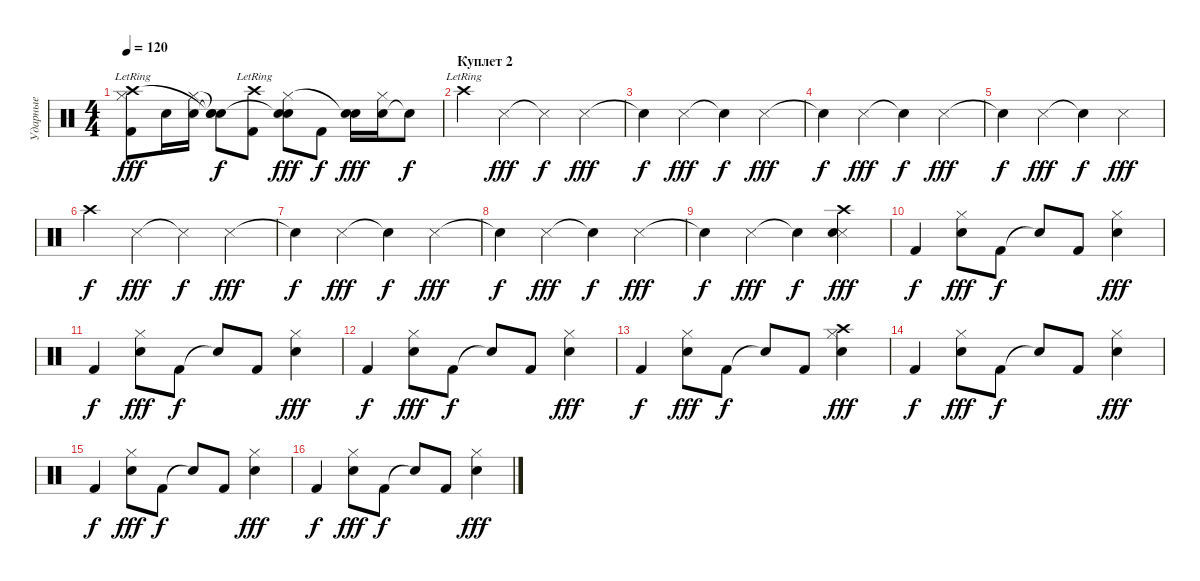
\track ("Ударные" "Ударные") {instrument percussion}
\staff {score}
\articulation defaults
\ts (4 4)
\tempo 120
\clef neutral
\ks c
("Hi-Hat (closed)" "Kick (hit) 2" "Crash high (hit)"{lr}).8{dy fff} "Snare (hit) 2".16 ("Snare (hit) 2" "Hi-Hat (closed)").16 ("Snare (hit)"{t} "Snare (hit)"{t} "Snare (hit)"{t}).8{dy f} ("Kick (hit) 2" "Crash high (hit)"{lr}).8 ("Snare (hit) 2" "Hi-Hat (closed)" "Snare (hit)"{t}).8{dy fff} "Kick (hit) 2".8{dy f} ("Snare (hit) 2" "Snare (hit)"{t}).16{dy fff} ("Snare (hit) 2" "Hi-Hat (closed)").16 "Snare (hit)"{t}.8{dy f} |
\section ("" "Куплет 2")
"Crash high (hit)"{lr}.4 "Snare (side stick) 3".4{dy fff} "Snare (side stick) 3"{t}.4{dy f} "Snare (side stick) 3".4{dy fff} |
"Snare (hit)"{t}.4{dy f} "Snare (side stick) 3".4{dy fff} "Snare (hit)"{t}.4{dy f} "Snare (side stick) 3".4{dy fff} |
"Snare (hit)"{t}.4{dy f} "Snare (side stick) 3".4{dy fff} "Snare (hit)"{t}.4{dy f} "Snare (side stick) 3".4{dy fff} |
"Snare (hit)"{t}.4{dy f} "Snare (side stick) 3".4{dy fff} "Snare (hit)"{t}.4{dy f} "Snare (side stick) 3".4{dy fff} |
"Crash high (hit)".4{dy f} "Snare (side stick) 3".4{dy fff} "Snare (side stick) 3"{t}.4{dy f} "Snare (side stick) 3".4{dy fff} |
"Snare (hit)"{t}.4{dy f} "Snare (side stick) 3".4{dy fff} "Snare (hit)"{t}.4{dy f} "Snare (side stick) 3".4{dy fff} |
"Snare (hit)"{t}.4{dy f} "Snare (side stick) 3".4{dy fff} "Snare (hit)"{t}.4{dy f} "Snare (side stick) 3".4{dy fff} |
"Snare (hit)"{t}.4{dy f} "Snare (side stick) 3".4{dy fff} "Snare (hit)"{t}.4{dy f} ("Snare (side stick) 3" "Snare (hit) 2" "Crash high (hit)").4{dy fff} |
"Kick (hit) 2".4{dy f} ("Snare (hit) 2" "Hi-Hat (closed)").8{dy fff} "Kick (hit) 2".8{dy f} "Snare (hit)"{t}.8 "Kick (hit) 2".8 ("Snare (hit) 2" "Hi-Hat (closed)").4{dy fff} |
"Kick (hit) 2".4{dy f} ("Snare (hit) 2" "Hi-Hat (closed)").8{dy fff} "Kick (hit) 2".8{dy f} "Snare (hit)"{t}.8 "Kick (hit) 2".8 ("Snare (hit) 2" "Hi-Hat (closed)").4{dy fff} |
"Kick (hit) 2".4{dy f} ("Snare (hit) 2" "Hi-Hat (closed)").8{dy fff} "Kick (hit) 2".8{dy f} "Snare (hit)"{t}.8 "Kick (hit) 2".8 ("Snare (hit) 2" "Hi-Hat (closed)").4{dy fff} |
"Kick (hit) 2".4{dy f} ("Snare (hit) 2" "Hi-Hat (closed)").8{dy fff} "Kick (hit) 2".8{dy f} "Snare (hit)"{t}.8 "Kick (hit) 2".8 ("Snare (hit) 2" "Hi-Hat (closed)" "Crash high (hit)").4{dy fff} |
"Kick (hit) 2".4{dy f} ("Snare (hit) 2" "Hi-Hat (closed)").8{dy fff} "Kick (hit) 2".8{dy f} "Snare (hit)"{t}.8 "Kick (hit) 2".8 ("Snare (hit) 2" "Hi-Hat (closed)").4{dy fff} |
"Kick (hit) 2".4{dy f} ("Snare (hit) 2" "Hi-Hat (closed)").8{dy fff} "Kick (hit) 2".8{dy f} "Snare (hit)"{t}.8 "Kick (hit) 2".8 ("Snare (hit) 2" "Hi-Hat (closed)").4{dy fff} |
"Kick (hit) 2".4{dy f} ("Snare (hit) 2" "Hi-Hat (closed)").8{dy fff} "Kick (hit) 2".8{dy f} "Snare (hit)"{t}.8 "Kick (hit) 2".8 ("Snare (hit) 2" "Hi-Hat (closed)").4{dy fff}
